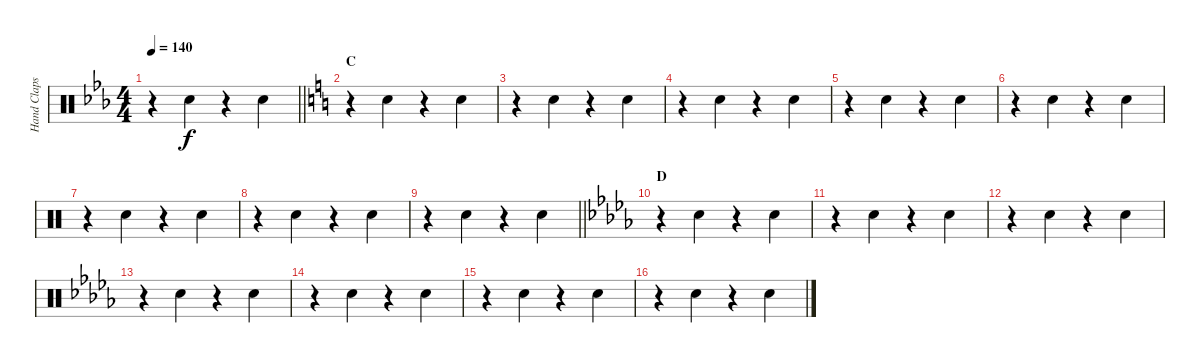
\track ("Hand Claps" "Hand Claps") {instrument percussion}
\staff {score}
\articulation defaults
\ts (4 4)
\tempo 140
\clef neutral
\barLineRight lightlight
\ks eb
r.4{dy f} "Hand Clap (hit)".4 r.4 "Hand Clap (hit)".4 |
\section ("" "C")
\ks c
r.4 "Hand Clap (hit)".4 r.4 "Hand Clap (hit)".4 |
r.4 "Hand Clap (hit)".4 r.4 "Hand Clap (hit)".4 |
r.4 "Hand Clap (hit)".4 r.4 "Hand Clap (hit)".4 |
r.4 "Hand Clap (hit)".4 r.4 "Hand Clap (hit)".4 |
r.4 "Hand Clap (hit)".4 r.4 "Hand Clap (hit)".4 |
r.4 "Hand Clap (hit)".4 r.4 "Hand Clap (hit)".4 |
r.4 "Hand Clap (hit)".4 r.4 "Hand Clap (hit)".4 |
\barLineRight lightlight
r.4 "Hand Clap (hit)".4 r.4 "Hand Clap (hit)".4 |
\section ("" "D")
\ks db
r.4 "Hand Clap (hit)".4 r.4 "Hand Clap (hit)".4 |
r.4 "Hand Clap (hit)".4 r.4 "Hand Clap (hit)".4 |
r.4 "Hand Clap (hit)".4 r.4 "Hand Clap (hit)".4 |
r.4 "Hand Clap (hit)".4 r.4 "Hand Clap (hit)".4 |
r.4 "Hand Clap (hit)".4 r.4 "Hand Clap (hit)".4 |
r.4 "Hand Clap (hit)".4 r.4 "Hand Clap (hit)".4 |
r.4 "Hand Clap (hit)".4 r.4 "Hand Clap (hit)".4
